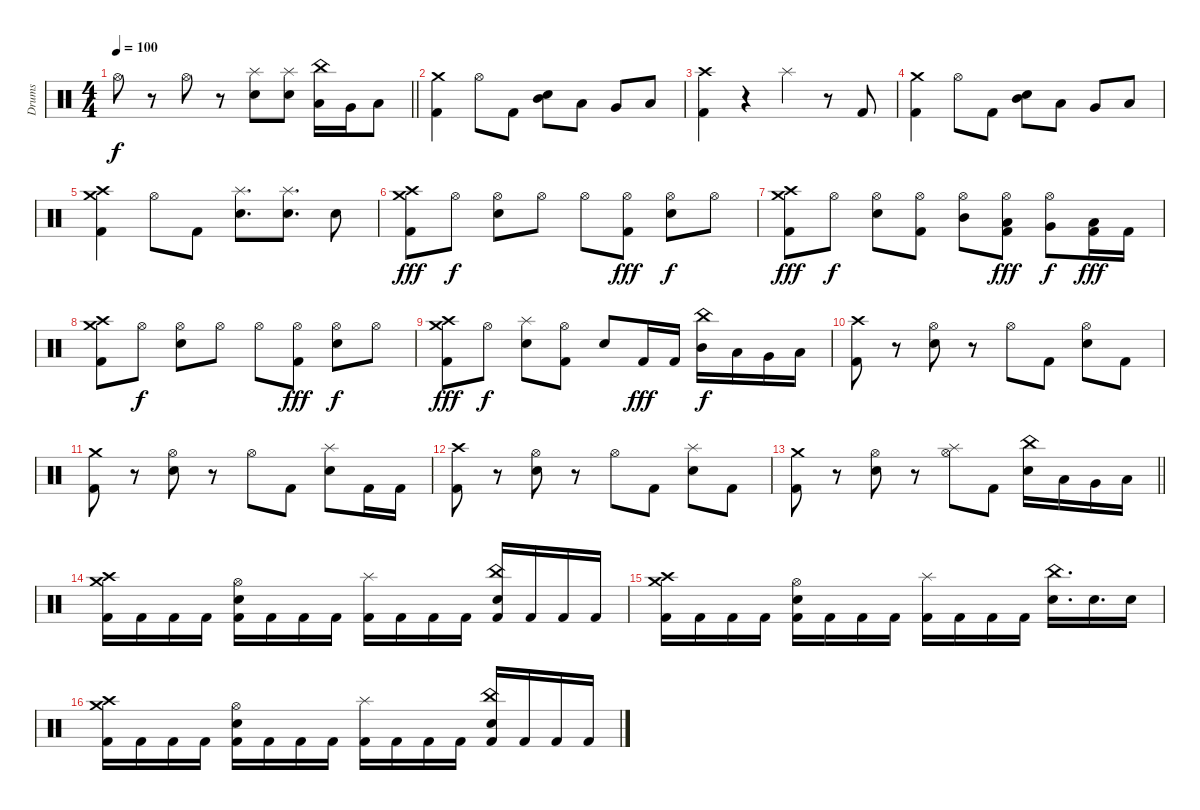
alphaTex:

\track ("Drums" "Drums") {instrument percussion}
\staff {score}
\articulation defaults
\ts (4 4)
\tempo 100
\clef neutral
\barLineRight lightlight
\ks c "Hi-Hat (open)".8{dy f}
r.8 "Hi-Hat (open)".8 r.8 ("Electric Snare (hit)" "Splash (hit)").8 ("Electric Snare (hit)" "Splash (hit)").8 ("Low Tom (hit)" "China (hit)").16 "Very Low Tom (hit)".16 "Low Floor Tom (hit)".8 |
("Kick (hit) 2" "Crash medium (hit)").4 "Hi-Hat (open)".8 "Kick (hit) 2".8 ("Mid Tom (hit)" "Electric Snare (hit)").8 "Low Tom (hit)".8 "Very Low Tom (hit)".8 "Low Floor Tom (hit)".8 |
("Kick (hit) 2" "Crash high (hit)").4 r.4 "Splash (hit)".4 r.8 "Kick (hit) 2".8 |
("Kick (hit) 2" "Crash medium (hit)").4 "Hi-Hat (open)".8 "Kick (hit) 2".8 ("Mid Tom (hit)" "Electric Snare (hit)").8 "Low Tom (hit)".8 "Very Low Tom (hit)".8 "Low Floor Tom (hit)".8 |
("Kick (hit) 2" "Crash high (hit)" "Crash medium (hit)").4 "Hi-Hat (open)".8 "Kick (hit) 2".8 ("Electric Snare (hit)" "Splash (hit)").8{d} ("Electric Snare (hit)" "Splash (hit)").8{d} "Electric Snare (hit)".8 |
("Kick (hit) 2" "Crash high (hit)" "Crash medium (hit)").8{dy fff} "Hi-Hat (open)".8{dy f} ("Electric Snare (hit)" "Hi-Hat (open)").8 "Hi-Hat (open)".8 "Hi-Hat (open)".8 ("Kick (hit) 2" "Hi-Hat (open)").8{dy fff} ("Electric Snare (hit)" "Hi-Hat (open)").8{dy f} "Hi-Hat (open)".8 |
("Kick (hit) 2" "Crash high (hit)" "Crash medium (hit)").8{dy fff} "Hi-Hat (open)".8{dy f} ("Electric Snare (hit)" "Hi-Hat (open)").8 ("Kick (hit) 2" "Hi-Hat (open)").8 ("Mid Tom (hit)" "Hi-Hat (open)").8 ("Kick (hit) 2" "Low Tom (hit)" "Hi-Hat (open)").8{dy fff} ("Very Low Tom (hit)" "Hi-Hat (open)").8{dy f} ("Kick (hit) 2" "Low Floor Tom (hit)").16{dy fff} "Kick (hit) 2".16 |
("Kick (hit) 2" "Crash high (hit)" "Crash medium (hit)").8 "Hi-Hat (open)".8{dy f} ("Electric Snare (hit)" "Hi-Hat (open)").8 "Hi-Hat (open)".8 "Hi-Hat (open)".8 ("Kick (hit) 2" "Hi-Hat (open)").8{dy fff} ("Electric Snare (hit)" "Hi-Hat (open)").8{dy f} "Hi-Hat (open)".8 |
("Kick (hit) 2" "Crash high (hit)" "Crash medium (hit)").8{dy fff} "Hi-Hat (open)".8{dy f} ("Electric Snare (hit)" "Splash (hit)").8 ("Kick (hit) 2" "Hi-Hat (open)").8 "Electric Snare (hit)".8 "Kick (hit) 2".16{dy fff} "Kick (hit) 2".16 ("Mid Tom (hit)" "China (hit)").16{dy f} "Low Tom (hit)".16 "Very Low Tom (hit)".16 "Low Floor Tom (hit)".16 |
("Kick (hit) 2" "Crash high (hit)").8 r.8 ("Electric Snare (hit)" "Hi-Hat (open)").8 r.8 "Hi-Hat (open)".8 "Kick (hit) 2".8 ("Electric Snare (hit)" "Hi-Hat (open)").8 "Kick (hit) 2".8 |
("Kick (hit) 2" "Crash medium (hit)").8 r.8 ("Electric Snare (hit)" "Hi-Hat (open)").8 r.8 "Hi-Hat (open)".8 "Kick (hit) 2".8 ("Electric Snare (hit)" "Splash (hit)").8 "Kick (hit) 2".16 "Kick (hit) 2".16 |
("Kick (hit) 2" "Crash high (hit)").8 r.8 ("Electric Snare (hit)" "Hi-Hat (open)").8 r.8 "Hi-Hat (open)".8 "Kick (hit) 2".8 ("Electric Snare (hit)" "Splash (hit)").8 "Kick (hit) 2".8 |
\barLineRight lightlight
("Kick (hit) 2" "Crash medium (hit)").8 r.8 ("Electric Snare (hit)" "Hi-Hat (open)").8 r.8 ("Hi-Hat (open)" "Splash (hit)").8 "Kick (hit) 2".8 ("Electric Snare (hit)" "China (hit)").16 "Low Tom (hit)".16 "Very Low Tom (hit)".16 "Low Floor Tom (hit)".16 |
("Kick (hit) 2" "Crash high (hit)" "Crash medium (hit)").16 "Kick (hit) 2".16 "Kick (hit) 2".16 "Kick (hit) 2".16 ("Kick (hit) 2" "Electric Snare (hit)" "Hi-Hat (open)").16 "Kick (hit) 2".16 "Kick (hit) 2".16 "Kick (hit) 2".16 ("Kick (hit) 2" "Splash (hit)").16 "Kick (hit) 2".16 "Kick (hit) 2".16 "Kick (hit) 2".16 ("Kick (hit) 2" "Electric Snare (hit)" "China (hit)").16 "Kick (hit) 2".16 "Kick (hit) 2".16 "Kick (hit) 2".16 |
("Kick (hit) 2" "Crash high (hit)" "Crash medium (hit)").16 "Kick (hit) 2".16 "Kick (hit) 2".16 "Kick (hit) 2".16 ("Kick (hit) 2" "Electric Snare (hit)" "Hi-Hat (open)").16 "Kick (hit) 2".16 "Kick (hit) 2".16 "Kick (hit) 2".16 ("Kick (hit) 2" "Splash (hit)").16 "Kick (hit) 2".16 "Kick (hit) 2".16 "Kick (hit) 2".16 ("Electric Snare (hit)" "China (hit)").16{d} "Electric Snare (hit)".16{d} "Electric Snare (hit)".16 |
("Kick (hit) 2" "Crash high (hit)" "Crash medium (hit)").16 "Kick (hit) 2".16 "Kick (hit) 2".16 "Kick (hit) 2".16 ("Kick (hit) 2" "Electric Snare (hit)" "Hi-Hat (open)").16 "Kick (hit) 2".16 "Kick (hit) 2".16 "Kick (hit) 2".16 ("Kick (hit) 2" "Splash (hit)").16 "Kick (hit) 2".16 "Kick (hit) 2".16 "Kick (hit) 2".16 ("Kick (hit) 2" "Electric Snare (hit)" "China (hit)").16 "Kick (hit) 2".16 "Kick (hit) 2".16 "Kick (hit) 2".16
